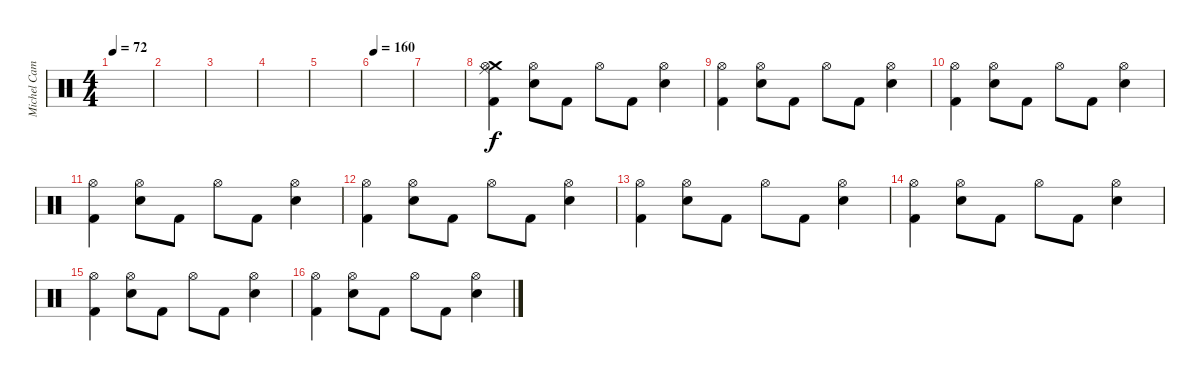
\track ("Michel Camiade" "Michel Cam") {instrument percussion}
\staff {score}
\articulation defaults
\ts (4 4)
\tempo 72
\clef neutral
\ks c
|
|
|
|
|
\tempo 160
|
|
("Crash medium (hit)" "Ride (middle)" "Hi-Hat (open)" "Kick (hit) 2").4 ("Hi-Hat (open)" "Snare (hit) 2").8 "Kick (hit) 2".8 "Hi-Hat (open)".8 "Kick (hit) 2".8 ("Hi-Hat (open)" "Snare (hit) 2").4 |
("Hi-Hat (open)" "Kick (hit) 2").4 ("Hi-Hat (open)" "Snare (hit) 2").8 "Kick (hit) 2".8 "Hi-Hat (open)".8 "Kick (hit) 2".8 ("Hi-Hat (open)" "Snare (hit) 2").4 |
("Hi-Hat (open)" "Kick (hit) 2").4 ("Hi-Hat (open)" "Snare (hit) 2").8 "Kick (hit) 2".8 "Hi-Hat (open)".8 "Kick (hit) 2".8 ("Hi-Hat (open)" "Snare (hit) 2").4 |
("Hi-Hat (open)" "Kick (hit) 2").4 ("Hi-Hat (open)" "Snare (hit) 2").8 "Kick (hit) 2".8 "Hi-Hat (open)".8 "Kick (hit) 2".8 ("Hi-Hat (open)" "Snare (hit) 2").4 |
("Hi-Hat (open)" "Kick (hit) 2").4 ("Hi-Hat (open)" "Snare (hit) 2").8 "Kick (hit) 2".8 "Hi-Hat (open)".8 "Kick (hit) 2".8 ("Hi-Hat (open)" "Snare (hit) 2").4 |
("Hi-Hat (open)" "Kick (hit) 2").4 ("Hi-Hat (open)" "Snare (hit) 2").8 "Kick (hit) 2".8 "Hi-Hat (open)".8 "Kick (hit) 2".8 ("Hi-Hat (open)" "Snare (hit) 2").4 |
("Hi-Hat (open)" "Kick (hit) 2").4 ("Hi-Hat (open)" "Snare (hit) 2").8 "Kick (hit) 2".8 "Hi-Hat (open)".8 "Kick (hit) 2".8 ("Hi-Hat (open)" "Snare (hit) 2").4 |
("Hi-Hat (open)" "Kick (hit) 2").4 ("Hi-Hat (open)" "Snare (hit) 2").8 "Kick (hit) 2".8 "Hi-Hat (open)".8 "Kick (hit) 2".8 ("Hi-Hat (open)" "Snare (hit) 2").4 |
("Hi-Hat (open)" "Kick (hit) 2").4 ("Hi-Hat (open)" "Snare (hit) 2").8 "Kick (hit) 2".8 "Hi-Hat (open)".8 "Kick (hit) 2".8 ("Hi-Hat (open)" "Snare (hit) 2").4
